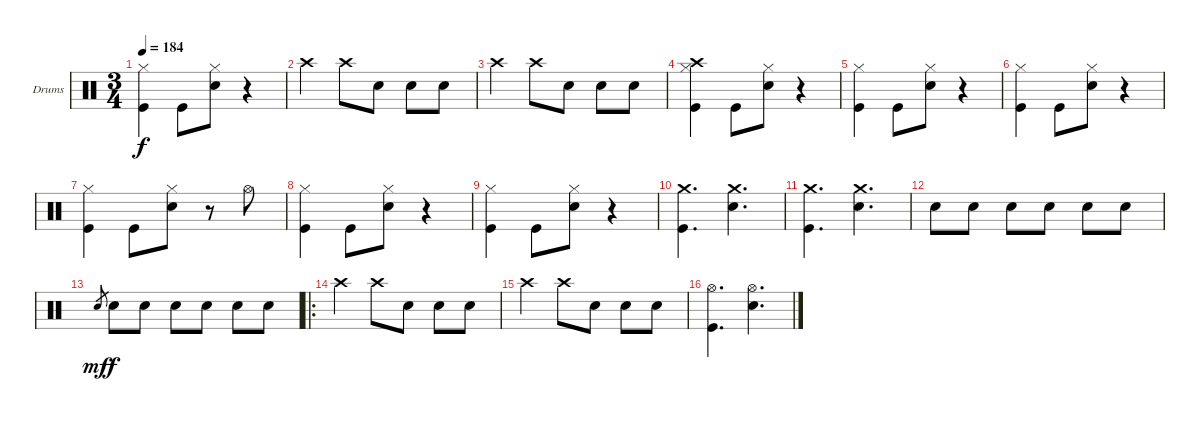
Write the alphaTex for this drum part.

\bracketExtendMode groupsimilarinstruments
\firstSystemTrackNameOrientation horizontal
\otherSystemsTrackNameOrientation horizontal
\track ("Drumkit" "Drums") {instrument percussion}
\staff {score}
\articulation defaults
\ts (3 4)
\tempo 184
\clef neutral
\ks c
("Hi-Hat (closed)" "Kick (hit)").4{dy f} "Kick (hit)".8 ("Snare (hit) 2" "Hi-Hat (closed)").8 r.4 |
"Crash high (hit)".4 "Crash high (hit)".8 "Snare (hit) 2".8 "Snare (hit) 2".8 "Snare (hit) 2".8 |
"Crash high (hit)".4 "Crash high (hit)".8 "Snare (hit) 2".8 "Snare (hit) 2".8 "Snare (hit) 2".8 |
("Crash high (hit)" "Hi-Hat (closed)" "Kick (hit)").4 "Kick (hit)".8 ("Snare (hit) 2" "Hi-Hat (closed)").8 r.4 |
("Hi-Hat (closed)" "Kick (hit)").4 "Kick (hit)".8 ("Snare (hit) 2" "Hi-Hat (closed)").8 r.4 |
("Hi-Hat (closed)" "Kick (hit)").4 "Kick (hit)".8 ("Snare (hit) 2" "Hi-Hat (closed)").8 r.4 |
("Hi-Hat (closed)" "Kick (hit)").4 "Kick (hit)".8 ("Snare (hit) 2" "Hi-Hat (closed)").8 r.8 "Hi-Hat (open)".8 |
("Hi-Hat (closed)" "Kick (hit)").4 "Kick (hit)".8 ("Snare (hit) 2" "Hi-Hat (closed)").8 r.4 |
("Hi-Hat (closed)" "Kick (hit)").4 "Kick (hit)".8 ("Snare (hit) 2" "Hi-Hat (closed)").8 r.4 |
("Crash medium (hit)" "Kick (hit)").4{d} ("Crash medium (hit)" "Snare (hit) 2").4{d} |
("Crash medium (hit)" "Kick (hit)").4{d} ("Crash medium (hit)" "Snare (hit) 2").4{d} |
"Snare (hit) 2".8 "Snare (hit) 2".8 "Snare (hit) 2".8 "Snare (hit) 2".8 "Snare (hit) 2".8 "Snare (hit) 2".8 |
"Snare (hit) 2".8{gr dy mf} "Snare (hit) 2".8{dy f} "Snare (hit) 2".8 "Snare (hit) 2".8 "Snare (hit) 2".8 "Snare (hit) 2".8 "Snare (hit) 2".8 |
\ro "Crash high (hit)".4 "Crash high (hit)".8 "Snare (hit) 2".8 "Snare (hit) 2".8 "Snare (hit) 2".8
|
"Crash high (hit)".4 "Crash high (hit)".8 "Snare (hit) 2".8 "Snare (hit) 2".8 "Snare (hit) 2".8 |
("Hi-Hat (open)" "Kick (hit)").4{d} ("Hi-Hat (open)" "Snare (hit) 2").4{d}
